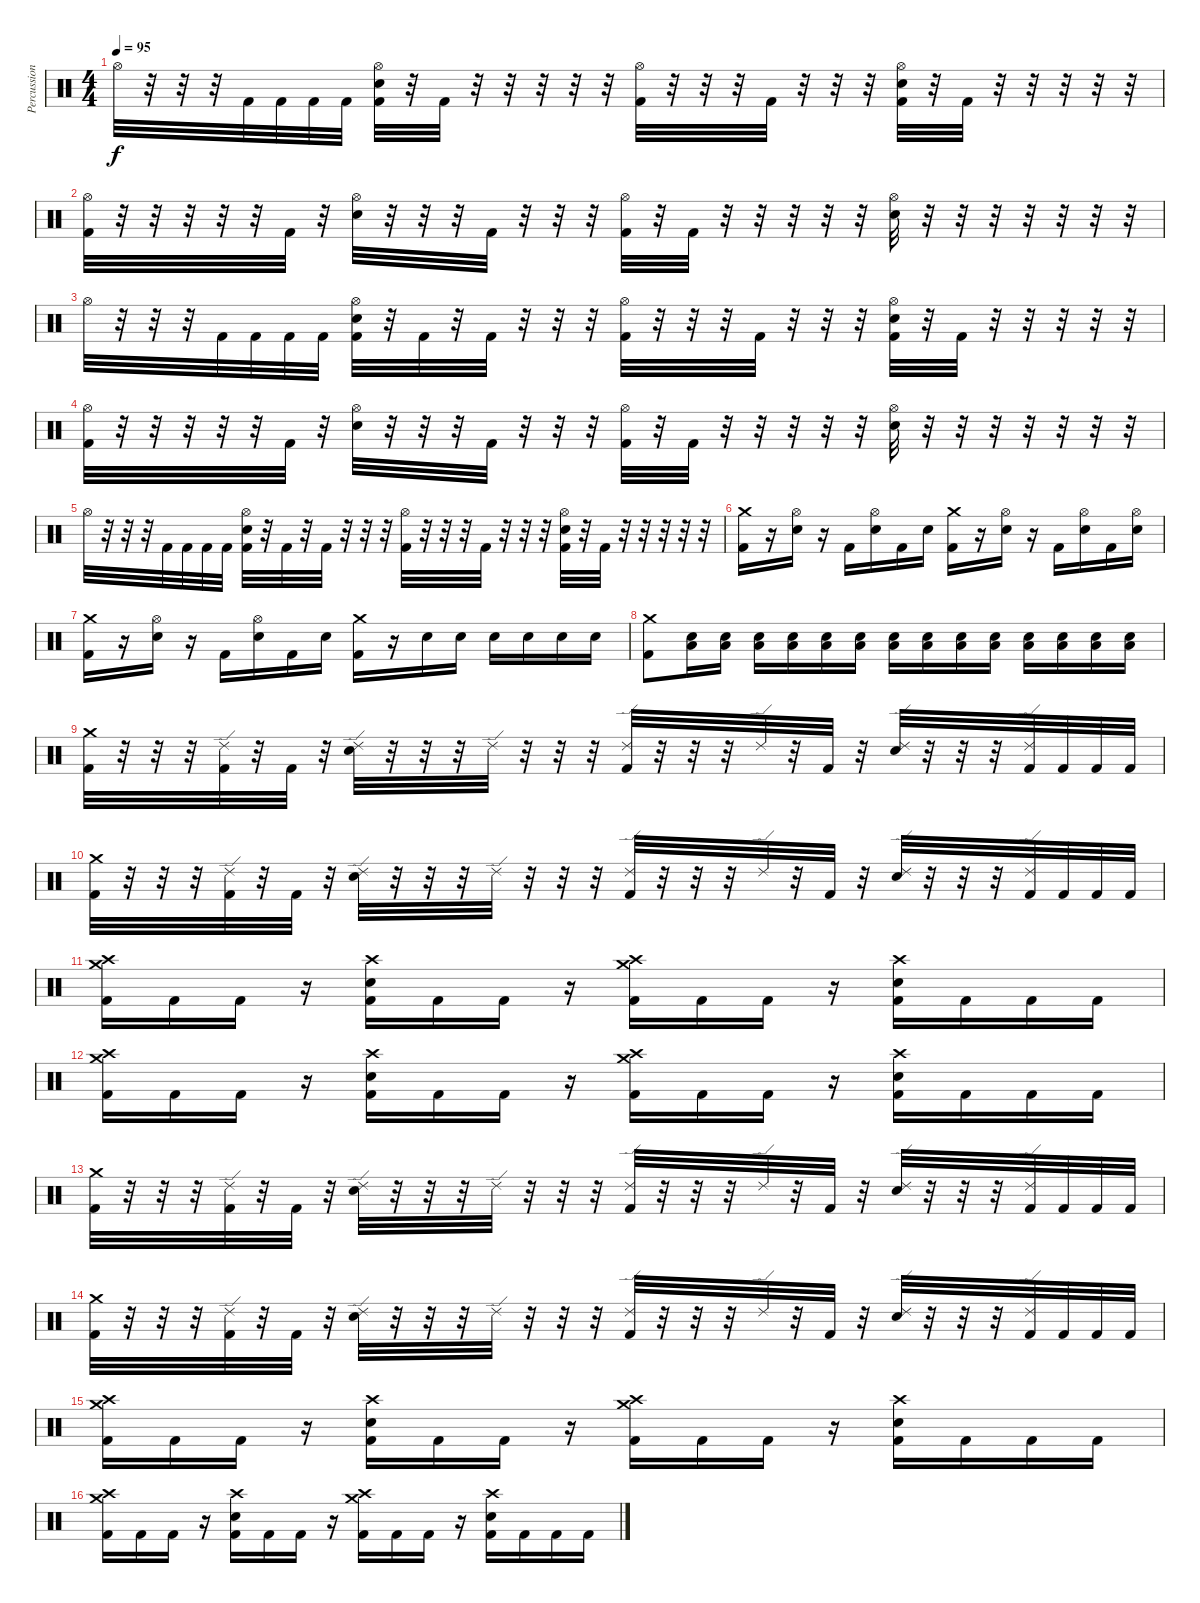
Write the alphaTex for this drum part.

\track ("Percussion" "Percussion") {instrument percussion}
\staff {score}
\articulation defaults
\ts (4 4)
\tempo 95
\clef neutral
\ks c "Hi-Hat (open)".32{dy f}
r.32 r.32 r.32 "Kick (hit) 2".32 "Kick (hit) 2".32 "Kick (hit) 2".32 "Kick (hit) 2".32 ("Hi-Hat (open)" "Electric Snare (hit)" "Kick (hit) 2").32 r.32 "Kick (hit) 2".32 r.32 r.32 r.32 r.32 r.32 ("Hi-Hat (open)" "Kick (hit) 2").32 r.32 r.32 r.32 "Kick (hit) 2".32 r.32 r.32 r.32 ("Hi-Hat (open)" "Electric Snare (hit)" "Kick (hit) 2").32 r.32 "Kick (hit) 2".32 r.32 r.32 r.32 r.32 r.32 |
("Hi-Hat (open)" "Kick (hit) 2").32 r.32 r.32 r.32 r.32 r.32 "Kick (hit) 2".32 r.32 ("Hi-Hat (open)" "Electric Snare (hit)").32 r.32 r.32 r.32 "Kick (hit) 2".32 r.32 r.32 r.32 ("Hi-Hat (open)" "Kick (hit) 2").32 r.32 "Kick (hit) 2".32 r.32 r.32 r.32 r.32 r.32 ("Hi-Hat (open)" "Electric Snare (hit)").32 r.32 r.32 r.32 r.32 r.32 r.32 r.32 |
"Hi-Hat (open)".32 r.32 r.32 r.32 "Kick (hit) 2".32 "Kick (hit) 2".32 "Kick (hit) 2".32 "Kick (hit) 2".32 ("Hi-Hat (open)" "Electric Snare (hit)" "Kick (hit) 2").32 r.32 "Kick (hit) 2".32 r.32 "Kick (hit) 2".32 r.32 r.32 r.32 ("Hi-Hat (open)" "Kick (hit) 2").32 r.32 r.32 r.32 "Kick (hit) 2".32 r.32 r.32 r.32 ("Hi-Hat (open)" "Electric Snare (hit)" "Kick (hit) 2").32 r.32 "Kick (hit) 2".32 r.32 r.32 r.32 r.32 r.32 |
("Hi-Hat (open)" "Kick (hit) 2").32 r.32 r.32 r.32 r.32 r.32 "Kick (hit) 2".32 r.32 ("Hi-Hat (open)" "Electric Snare (hit)").32 r.32 r.32 r.32 "Kick (hit) 2".32 r.32 r.32 r.32 ("Hi-Hat (open)" "Kick (hit) 2").32 r.32 "Kick (hit) 2".32 r.32 r.32 r.32 r.32 r.32 ("Hi-Hat (open)" "Electric Snare (hit)").32 r.32 r.32 r.32 r.32 r.32 r.32 r.32 |
"Hi-Hat (open)".32 r.32 r.32 r.32 "Kick (hit) 2".32 "Kick (hit) 2".32 "Kick (hit) 2".32 "Kick (hit) 2".32 ("Hi-Hat (open)" "Electric Snare (hit)" "Kick (hit) 2").32 r.32 "Kick (hit) 2".32 r.32 "Kick (hit) 2".32 r.32 r.32 r.32 ("Hi-Hat (open)" "Kick (hit) 2").32 r.32 r.32 r.32 "Kick (hit) 2".32 r.32 r.32 r.32 ("Hi-Hat (open)" "Electric Snare (hit)" "Kick (hit) 2").32 r.32 "Kick (hit) 2".32 r.32 r.32 r.32 r.32 r.32 |
("Crash medium (hit)" "Kick (hit) 2").16 r.16 ("Hi-Hat (open)" "Electric Snare (hit)").16 r.16 "Kick (hit) 2".16 ("Hi-Hat (open)" "Electric Snare (hit)").16 "Kick (hit) 2".16 "Electric Snare (hit)".16 ("Crash medium (hit)" "Kick (hit) 2").16 r.16 ("Hi-Hat (open)" "Electric Snare (hit)").16 r.16 "Kick (hit) 2".16 ("Hi-Hat (open)" "Electric Snare (hit)").16 "Kick (hit) 2".16 ("Hi-Hat (open)" "Electric Snare (hit)").16 |
("Crash medium (hit)" "Kick (hit) 2").16 r.16 ("Hi-Hat (open)" "Electric Snare (hit)").16 r.16 "Kick (hit) 2".16 ("Hi-Hat (open)" "Electric Snare (hit)").16 "Kick (hit) 2".16 "Electric Snare (hit)".16 ("Crash medium (hit)" "Kick (hit) 2").16 r.16 "Electric Snare (hit)".16 "Electric Snare (hit)".16 "Electric Snare (hit)".16 "Electric Snare (hit)".16 "Electric Snare (hit)".16 "Electric Snare (hit)".16 |
("Crash medium (hit)" "Kick (hit) 2").8 ("Low Floor Tom (hit)" "Electric Snare (hit)").16 ("Low Floor Tom (hit)" "Electric Snare (hit)").16 ("Low Floor Tom (hit)" "Electric Snare (hit)").16 ("Low Floor Tom (hit)" "Electric Snare (hit)").16 ("Low Floor Tom (hit)" "Electric Snare (hit)").16 ("Low Floor Tom (hit)" "Electric Snare (hit)").16 ("Low Floor Tom (hit)" "Electric Snare (hit)").16 ("Low Floor Tom (hit)" "Electric Snare (hit)").16 ("Low Floor Tom (hit)" "Electric Snare (hit)").16 ("Low Floor Tom (hit)" "Electric Snare (hit)").16 ("Low Floor Tom (hit)" "Electric Snare (hit)").16 ("Low Floor Tom (hit)" "Electric Snare (hit)").16 ("Low Floor Tom (hit)" "Electric Snare (hit)").16 ("Low Floor Tom (hit)" "Electric Snare (hit)").16 |
("Crash medium (hit)" "Kick (hit) 2").32 r.32 r.32 r.32 ("Ride (edge) 2" "Kick (hit) 2").32 r.32 "Kick (hit) 2".32 r.32 ("Ride (edge) 2" "Electric Snare (hit)").32 r.32 r.32 r.32 "Ride (edge) 2".32 r.32 r.32 r.32 ("Ride (edge) 2" "Kick (hit) 2").32 r.32 r.32 r.32 "Ride (edge) 2".32 r.32 "Kick (hit) 2".32 r.32 ("Ride (edge) 2" "Electric Snare (hit)").32 r.32 r.32 r.32 ("Ride (edge) 2" "Kick (hit) 2").32 "Kick (hit) 2".32 "Kick (hit) 2".32 "Kick (hit) 2".32 |
("Crash medium (hit)" "Kick (hit) 2").32 r.32 r.32 r.32 ("Ride (edge) 2" "Kick (hit) 2").32 r.32 "Kick (hit) 2".32 r.32 ("Ride (edge) 2" "Electric Snare (hit)").32 r.32 r.32 r.32 "Ride (edge) 2".32 r.32 r.32 r.32 ("Ride (edge) 2" "Kick (hit) 2").32 r.32 r.32 r.32 "Ride (edge) 2".32 r.32 "Kick (hit) 2".32 r.32 ("Ride (edge) 2" "Electric Snare (hit)").32 r.32 r.32 r.32 ("Ride (edge) 2" "Kick (hit) 2").32 "Kick (hit) 2".32 "Kick (hit) 2".32 "Kick (hit) 2".32 |
("Crash medium (hit)" "Crash high (hit)" "Kick (hit) 2").16 "Kick (hit) 2".16 "Kick (hit) 2".16 r.16 ("Crash high (hit)" "Electric Snare (hit)" "Kick (hit) 2").16 "Kick (hit) 2".16 "Kick (hit) 2".16 r.16 ("Crash medium (hit)" "Crash high (hit)" "Kick (hit) 2").16 "Kick (hit) 2".16 "Kick (hit) 2".16 r.16 ("Crash high (hit)" "Electric Snare (hit)" "Kick (hit) 2").16 "Kick (hit) 2".16 "Kick (hit) 2".16 "Kick (hit) 2".16 |
("Crash medium (hit)" "Crash high (hit)" "Kick (hit) 2").16 "Kick (hit) 2".16 "Kick (hit) 2".16 r.16 ("Crash high (hit)" "Electric Snare (hit)" "Kick (hit) 2").16 "Kick (hit) 2".16 "Kick (hit) 2".16 r.16 ("Crash medium (hit)" "Crash high (hit)" "Kick (hit) 2").16 "Kick (hit) 2".16 "Kick (hit) 2".16 r.16 ("Crash high (hit)" "Electric Snare (hit)" "Kick (hit) 2").16 "Kick (hit) 2".16 "Kick (hit) 2".16 "Kick (hit) 2".16 |
("Crash medium (hit)" "Kick (hit) 2").32 r.32 r.32 r.32 ("Ride (edge) 2" "Kick (hit) 2").32 r.32 "Kick (hit) 2".32 r.32 ("Ride (edge) 2" "Electric Snare (hit)").32 r.32 r.32 r.32 "Ride (edge) 2".32 r.32 r.32 r.32 ("Ride (edge) 2" "Kick (hit) 2").32 r.32 r.32 r.32 "Ride (edge) 2".32 r.32 "Kick (hit) 2".32 r.32 ("Ride (edge) 2" "Electric Snare (hit)").32 r.32 r.32 r.32 ("Ride (edge) 2" "Kick (hit) 2").32 "Kick (hit) 2".32 "Kick (hit) 2".32 "Kick (hit) 2".32 |
("Crash medium (hit)" "Kick (hit) 2").32 r.32 r.32 r.32 ("Ride (edge) 2" "Kick (hit) 2").32 r.32 "Kick (hit) 2".32 r.32 ("Ride (edge) 2" "Electric Snare (hit)").32 r.32 r.32 r.32 "Ride (edge) 2".32 r.32 r.32 r.32 ("Ride (edge) 2" "Kick (hit) 2").32 r.32 r.32 r.32 "Ride (edge) 2".32 r.32 "Kick (hit) 2".32 r.32 ("Ride (edge) 2" "Electric Snare (hit)").32 r.32 r.32 r.32 ("Ride (edge) 2" "Kick (hit) 2").32 "Kick (hit) 2".32 "Kick (hit) 2".32 "Kick (hit) 2".32 |
("Crash medium (hit)" "Crash high (hit)" "Kick (hit) 2").16 "Kick (hit) 2".16 "Kick (hit) 2".16 r.16 ("Crash high (hit)" "Electric Snare (hit)" "Kick (hit) 2").16 "Kick (hit) 2".16 "Kick (hit) 2".16 r.16 ("Crash medium (hit)" "Crash high (hit)" "Kick (hit) 2").16 "Kick (hit) 2".16 "Kick (hit) 2".16 r.16 ("Crash high (hit)" "Electric Snare (hit)" "Kick (hit) 2").16 "Kick (hit) 2".16 "Kick (hit) 2".16 "Kick (hit) 2".16 |
("Crash medium (hit)" "Crash high (hit)" "Kick (hit) 2").16 "Kick (hit) 2".16 "Kick (hit) 2".16 r.16 ("Crash high (hit)" "Electric Snare (hit)" "Kick (hit) 2").16 "Kick (hit) 2".16 "Kick (hit) 2".16 r.16 ("Crash medium (hit)" "Crash high (hit)" "Kick (hit) 2").16 "Kick (hit) 2".16 "Kick (hit) 2".16 r.16 ("Crash high (hit)" "Electric Snare (hit)" "Kick (hit) 2").16 "Kick (hit) 2".16 "Kick (hit) 2".16 "Kick (hit) 2".16
